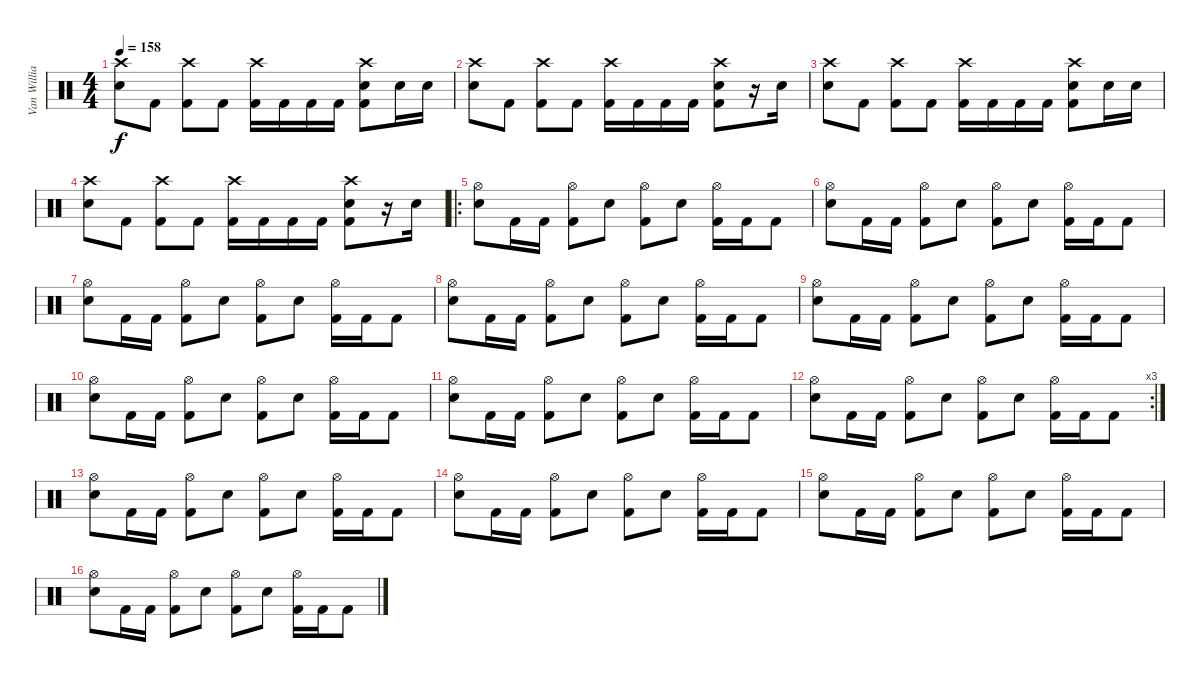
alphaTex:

\track ("Van Williams" "Van Willia") {instrument percussion}
\staff {score}
\articulation defaults
\ts (4 4)
\tempo 158
\clef neutral
\ks c
("Crash high (hit)" "Electric Snare (hit)").8{dy f} "Kick (hit) 2".8 ("Crash high (hit)" "Kick (hit) 2").8 "Kick (hit) 2".8 ("Crash high (hit)" "Kick (hit) 2").16 "Kick (hit) 2".16 "Kick (hit) 2".16 "Kick (hit) 2".16 ("Crash high (hit)" "Electric Snare (hit)" "Kick (hit) 2").8 "Electric Snare (hit)".16 "Electric Snare (hit)".16 |
("Crash high (hit)" "Electric Snare (hit)").8 "Kick (hit) 2".8 ("Crash high (hit)" "Kick (hit) 2").8 "Kick (hit) 2".8 ("Crash high (hit)" "Kick (hit) 2").16 "Kick (hit) 2".16 "Kick (hit) 2".16 "Kick (hit) 2".16 ("Crash high (hit)" "Electric Snare (hit)" "Kick (hit) 2").8 r.16 "Electric Snare (hit)".16 |
("Crash high (hit)" "Electric Snare (hit)").8 "Kick (hit) 2".8 ("Crash high (hit)" "Kick (hit) 2").8 "Kick (hit) 2".8 ("Crash high (hit)" "Kick (hit) 2").16 "Kick (hit) 2".16 "Kick (hit) 2".16 "Kick (hit) 2".16 ("Crash high (hit)" "Electric Snare (hit)" "Kick (hit) 2").8 "Electric Snare (hit)".16 "Electric Snare (hit)".16 |
("Crash high (hit)" "Electric Snare (hit)").8 "Kick (hit) 2".8 ("Crash high (hit)" "Kick (hit) 2").8 "Kick (hit) 2".8 ("Crash high (hit)" "Kick (hit) 2").16 "Kick (hit) 2".16 "Kick (hit) 2".16 "Kick (hit) 2".16 ("Crash high (hit)" "Electric Snare (hit)" "Kick (hit) 2").8 r.16 "Electric Snare (hit)".16 |
\ro
("Hi-Hat (open)" "Electric Snare (hit)").8 "Kick (hit) 2".16 "Kick (hit) 2".16 ("Hi-Hat (open)" "Kick (hit) 2").8 "Electric Snare (hit)".8 ("Hi-Hat (open)" "Kick (hit) 2").8 "Electric Snare (hit)".8 ("Hi-Hat (open)" "Kick (hit) 2").16 "Kick (hit) 2".16 "Kick (hit) 2".8 |
("Hi-Hat (open)" "Electric Snare (hit)").8 "Kick (hit) 2".16 "Kick (hit) 2".16 ("Hi-Hat (open)" "Kick (hit) 2").8 "Electric Snare (hit)".8 ("Hi-Hat (open)" "Kick (hit) 2").8 "Electric Snare (hit)".8 ("Hi-Hat (open)" "Kick (hit) 2").16 "Kick (hit) 2".16 "Kick (hit) 2".8 |
("Hi-Hat (open)" "Electric Snare (hit)").8 "Kick (hit) 2".16 "Kick (hit) 2".16 ("Hi-Hat (open)" "Kick (hit) 2").8 "Electric Snare (hit)".8 ("Hi-Hat (open)" "Kick (hit) 2").8 "Electric Snare (hit)".8 ("Hi-Hat (open)" "Kick (hit) 2").16 "Kick (hit) 2".16 "Kick (hit) 2".8 |
("Hi-Hat (open)" "Electric Snare (hit)").8 "Kick (hit) 2".16 "Kick (hit) 2".16 ("Hi-Hat (open)" "Kick (hit) 2").8 "Electric Snare (hit)".8 ("Hi-Hat (open)" "Kick (hit) 2").8 "Electric Snare (hit)".8 ("Hi-Hat (open)" "Kick (hit) 2").16 "Kick (hit) 2".16 "Kick (hit) 2".8 |
("Hi-Hat (open)" "Electric Snare (hit)").8 "Kick (hit) 2".16 "Kick (hit) 2".16 ("Hi-Hat (open)" "Kick (hit) 2").8 "Electric Snare (hit)".8 ("Hi-Hat (open)" "Kick (hit) 2").8 "Electric Snare (hit)".8 ("Hi-Hat (open)" "Kick (hit) 2").16 "Kick (hit) 2".16 "Kick (hit) 2".8 |
("Hi-Hat (open)" "Electric Snare (hit)").8 "Kick (hit) 2".16 "Kick (hit) 2".16 ("Hi-Hat (open)" "Kick (hit) 2").8 "Electric Snare (hit)".8 ("Hi-Hat (open)" "Kick (hit) 2").8 "Electric Snare (hit)".8 ("Hi-Hat (open)" "Kick (hit) 2").16 "Kick (hit) 2".16 "Kick (hit) 2".8 |
("Hi-Hat (open)" "Electric Snare (hit)").8 "Kick (hit) 2".16 "Kick (hit) 2".16 ("Hi-Hat (open)" "Kick (hit) 2").8 "Electric Snare (hit)".8 ("Hi-Hat (open)" "Kick (hit) 2").8 "Electric Snare (hit)".8 ("Hi-Hat (open)" "Kick (hit) 2").16 "Kick (hit) 2".16 "Kick (hit) 2".8 |
\rc 3
("Hi-Hat (open)" "Electric Snare (hit)").8 "Kick (hit) 2".16 "Kick (hit) 2".16 ("Hi-Hat (open)" "Kick (hit) 2").8 "Electric Snare (hit)".8 ("Hi-Hat (open)" "Kick (hit) 2").8 "Electric Snare (hit)".8 ("Hi-Hat (open)" "Kick (hit) 2").16 "Kick (hit) 2".16 "Kick (hit) 2".8 |
("Hi-Hat (open)" "Electric Snare (hit)").8 "Kick (hit) 2".16 "Kick (hit) 2".16 ("Hi-Hat (open)" "Kick (hit) 2").8 "Electric Snare (hit)".8 ("Hi-Hat (open)" "Kick (hit) 2").8 "Electric Snare (hit)".8 ("Hi-Hat (open)" "Kick (hit) 2").16 "Kick (hit) 2".16 "Kick (hit) 2".8 |
("Hi-Hat (open)" "Electric Snare (hit)").8 "Kick (hit) 2".16 "Kick (hit) 2".16 ("Hi-Hat (open)" "Kick (hit) 2").8 "Electric Snare (hit)".8 ("Hi-Hat (open)" "Kick (hit) 2").8 "Electric Snare (hit)".8 ("Hi-Hat (open)" "Kick (hit) 2").16 "Kick (hit) 2".16 "Kick (hit) 2".8 |
("Hi-Hat (open)" "Electric Snare (hit)").8 "Kick (hit) 2".16 "Kick (hit) 2".16 ("Hi-Hat (open)" "Kick (hit) 2").8 "Electric Snare (hit)".8 ("Hi-Hat (open)" "Kick (hit) 2").8 "Electric Snare (hit)".8 ("Hi-Hat (open)" "Kick (hit) 2").16 "Kick (hit) 2".16 "Kick (hit) 2".8 |
("Hi-Hat (open)" "Electric Snare (hit)").8 "Kick (hit) 2".16 "Kick (hit) 2".16 ("Hi-Hat (open)" "Kick (hit) 2").8 "Electric Snare (hit)".8 ("Hi-Hat (open)" "Kick (hit) 2").8 "Electric Snare (hit)".8 ("Hi-Hat (open)" "Kick (hit) 2").16 "Kick (hit) 2".16 "Kick (hit) 2".8
